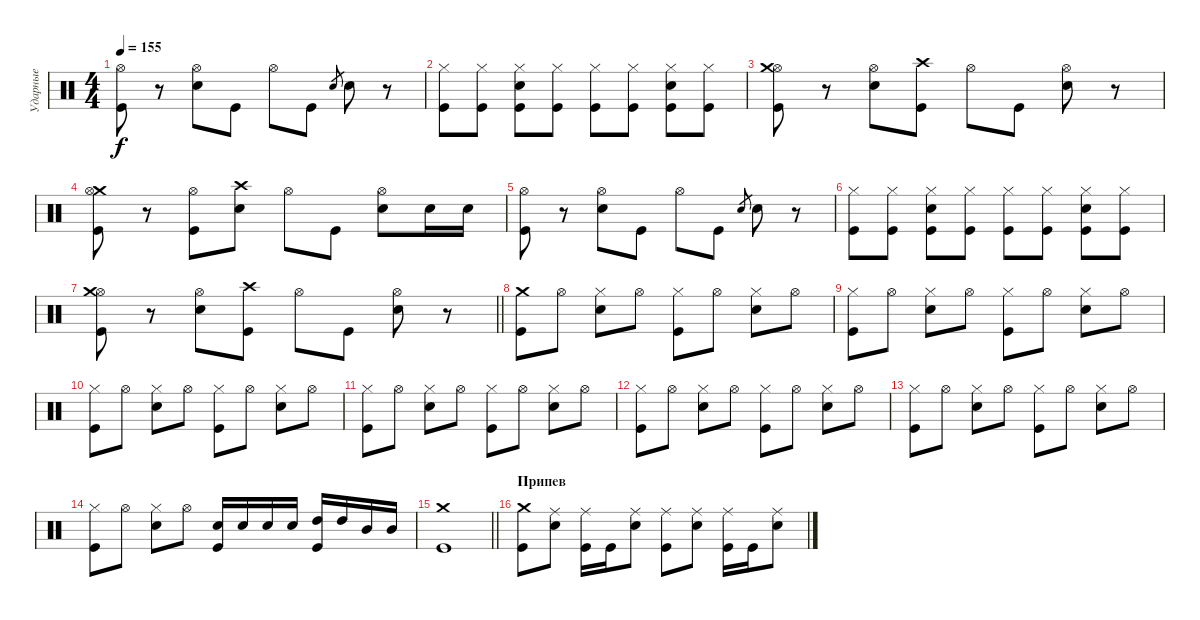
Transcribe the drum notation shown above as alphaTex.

\track ("Ударные" "Ударные") {instrument percussion}
\staff {score}
\articulation defaults
\ts (4 4)
\tempo 155
\clef neutral
\ks c
("Hi-Hat (open)" "Kick (hit)").8{dy f} r.8 ("Hi-Hat (open)" "Electric Snare (hit)").8 "Kick (hit)".8 "Hi-Hat (open)".8 "Kick (hit)".8 "Electric Snare (hit)".8{gr} "Electric Snare (hit)".8 r.8 |
("Hi-Hat (closed)" "Kick (hit)").8 ("Hi-Hat (closed)" "Kick (hit)").8 ("Hi-Hat (closed)" "Kick (hit)" "Electric Snare (hit)").8 ("Hi-Hat (closed)" "Kick (hit)").8 ("Hi-Hat (closed)" "Kick (hit)").8 ("Hi-Hat (closed)" "Kick (hit)").8 ("Hi-Hat (closed)" "Kick (hit)" "Electric Snare (hit)").8 ("Hi-Hat (closed)" "Kick (hit)").8 |
("Hi-Hat (open)" "Kick (hit)" "Crash medium (hit)").8 r.8 ("Hi-Hat (open)" "Electric Snare (hit)").8 ("Kick (hit)" "Crash high (hit)").8 "Hi-Hat (open)".8 "Kick (hit)".8 ("Hi-Hat (open)" "Electric Snare (hit)").8 r.8 |
("Crash medium (hit)" "Hi-Hat (open)" "Kick (hit)").8 r.8 ("Hi-Hat (open)" "Kick (hit)").8 ("Crash high (hit)" "Electric Snare (hit)").8 "Hi-Hat (open)".8 "Kick (hit)".8 ("Hi-Hat (open)" "Electric Snare (hit)").8 "Electric Snare (hit)".16 "Electric Snare (hit)".16 |
("Hi-Hat (open)" "Kick (hit)").8 r.8 ("Hi-Hat (open)" "Electric Snare (hit)").8 "Kick (hit)".8 "Hi-Hat (open)".8 "Kick (hit)".8 "Electric Snare (hit)".8{gr} "Electric Snare (hit)".8 r.8 |
("Hi-Hat (closed)" "Kick (hit)").8 ("Hi-Hat (closed)" "Kick (hit)").8 ("Hi-Hat (closed)" "Kick (hit)" "Electric Snare (hit)").8 ("Hi-Hat (closed)" "Kick (hit)").8 ("Hi-Hat (closed)" "Kick (hit)").8 ("Hi-Hat (closed)" "Kick (hit)").8 ("Hi-Hat (closed)" "Kick (hit)" "Electric Snare (hit)").8 ("Hi-Hat (closed)" "Kick (hit)").8 |
\barLineRight lightlight
("Hi-Hat (open)" "Kick (hit)" "Crash medium (hit)").8 r.8 ("Hi-Hat (open)" "Electric Snare (hit)").8 ("Kick (hit)" "Crash high (hit)").8 "Hi-Hat (open)".8 "Kick (hit)".8 ("Hi-Hat (open)" "Electric Snare (hit)").8 r.8 |
\section ("" " ")
("Crash medium (hit)" "Kick (hit)").8 "Hi-Hat (open)".8 ("Hi-Hat (closed)" "Electric Snare (hit)").8 "Hi-Hat (open)".8 ("Hi-Hat (closed)" "Kick (hit)").8 "Hi-Hat (open)".8 ("Hi-Hat (closed)" "Electric Snare (hit)").8 "Hi-Hat (open)".8 |
("Hi-Hat (closed)" "Kick (hit)").8 "Hi-Hat (open)".8 ("Hi-Hat (closed)" "Electric Snare (hit)").8 "Hi-Hat (open)".8 ("Hi-Hat (closed)" "Kick (hit)").8 "Hi-Hat (open)".8 ("Hi-Hat (closed)" "Electric Snare (hit)").8 "Hi-Hat (open)".8 |
("Hi-Hat (closed)" "Kick (hit)").8 "Hi-Hat (open)".8 ("Hi-Hat (closed)" "Electric Snare (hit)").8 "Hi-Hat (open)".8 ("Hi-Hat (closed)" "Kick (hit)").8 "Hi-Hat (open)".8 ("Hi-Hat (closed)" "Electric Snare (hit)").8 "Hi-Hat (open)".8 |
("Hi-Hat (closed)" "Kick (hit)").8 "Hi-Hat (open)".8 ("Hi-Hat (closed)" "Electric Snare (hit)").8 "Hi-Hat (open)".8 ("Hi-Hat (closed)" "Kick (hit)").8 "Hi-Hat (open)".8 ("Hi-Hat (closed)" "Electric Snare (hit)").8 "Hi-Hat (open)".8 |
("Hi-Hat (closed)" "Kick (hit)").8 "Hi-Hat (open)".8 ("Hi-Hat (closed)" "Electric Snare (hit)").8 "Hi-Hat (open)".8 ("Hi-Hat (closed)" "Kick (hit)").8 "Hi-Hat (open)".8 ("Hi-Hat (closed)" "Electric Snare (hit)").8 "Hi-Hat (open)".8 |
("Hi-Hat (closed)" "Kick (hit)").8 "Hi-Hat (open)".8 ("Hi-Hat (closed)" "Electric Snare (hit)").8 "Hi-Hat (open)".8 ("Hi-Hat (closed)" "Kick (hit)").8 "Hi-Hat (open)".8 ("Hi-Hat (closed)" "Electric Snare (hit)").8 "Hi-Hat (open)".8 |
("Hi-Hat (closed)" "Kick (hit)").8 "Hi-Hat (open)".8 ("Hi-Hat (closed)" "Electric Snare (hit)").8 "Hi-Hat (open)".8 ("Electric Snare (hit)" "Kick (hit)").16 "Electric Snare (hit)".16 "Electric Snare (hit)".16 "Electric Snare (hit)".16 ("High Tom (hit)" "Kick (hit)").16 "High Tom (hit)".16 "Mid Tom (hit)".16 "Mid Tom (hit)".16 |
\barLineRight lightlight
("Crash medium (hit)" "Kick (hit)").1 |
\section ("" "Припев")
("Crash medium (hit)" "Kick (hit)").8 ("Ride (middle)" "Electric Snare (hit)").8 ("Ride (middle)" "Kick (hit)").16 "Kick (hit)".16 ("Ride (middle)" "Electric Snare (hit)").8 ("Ride (middle)" "Kick (hit)").8 ("Ride (middle)" "Electric Snare (hit)").8 ("Ride (middle)" "Kick (hit)").16 "Kick (hit)".16 ("Ride (middle)" "Electric Snare (hit)").8
